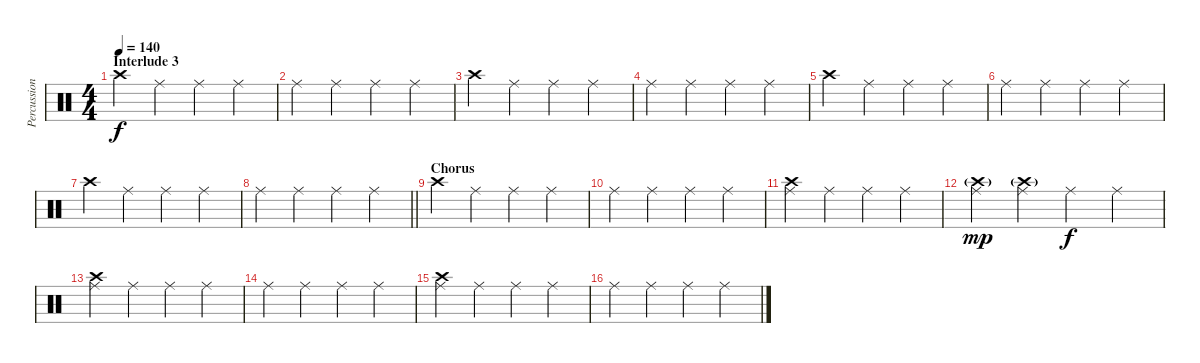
\track ("Percussion" "Percussion") {instrument percussion}
\staff {score}
\articulation defaults
\ts (4 4)
\section ("" "Interlude 3")
\tempo 140
\clef neutral
\ks c "Crash high (hit)".4{dy f} "Ride (middle)".4 "Ride (middle)".4 "Ride (middle)".4
|
"Ride (middle)".4 "Ride (middle)".4 "Ride (middle)".4 "Ride (middle)".4 |
"Crash high (hit)".4 "Ride (middle)".4 "Ride (middle)".4 "Ride (middle)".4 |
"Ride (middle)".4 "Ride (middle)".4 "Ride (middle)".4 "Ride (middle)".4 |
"Crash high (hit)".4 "Ride (middle)".4 "Ride (middle)".4 "Ride (middle)".4 |
"Ride (middle)".4 "Ride (middle)".4 "Ride (middle)".4 "Ride (middle)".4 |
"Crash high (hit)".4 "Ride (middle)".4 "Ride (middle)".4 "Ride (middle)".4 |
\barLineRight lightlight "Ride (middle)".4 "Ride (middle)".4 "Ride (middle)".4 "Ride (middle)".4
|
\section ("" "Chorus")
"Crash high (hit)".4 "Ride (middle)".4 "Ride (middle)".4 "Ride (middle)".4 |
"Ride (middle)".4 "Ride (middle)".4 "Ride (middle)".4 "Ride (middle)".4 |
("Crash high (hit)" "Ride (middle)").4 "Ride (middle)".4 "Ride (middle)".4 "Ride (middle)".4 |
("Crash high (hit)"{g} "Ride (middle)").4{dy mp} ("Crash high (hit)"{g} "Ride (middle)").4 "Ride (middle)".4{dy f} "Ride (middle)".4 |
("Crash high (hit)" "Ride (middle)").4 "Ride (middle)".4 "Ride (middle)".4 "Ride (middle)".4 |
"Ride (middle)".4 "Ride (middle)".4 "Ride (middle)".4 "Ride (middle)".4 |
("Crash high (hit)" "Ride (middle)").4 "Ride (middle)".4 "Ride (middle)".4 "Ride (middle)".4 |
"Ride (middle)".4 "Ride (middle)".4 "Ride (middle)".4 "Ride (middle)".4
